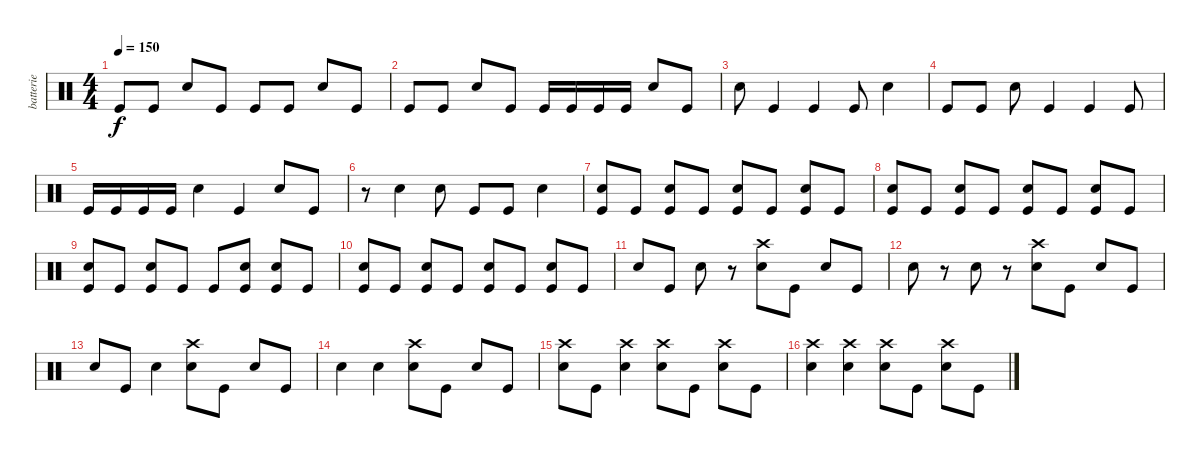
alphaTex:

\track ("batterie" "batterie") {instrument percussion}
\staff {score}
\articulation defaults
\ts (4 4)
\tempo 150
\clef neutral
\ks c "Kick (hit)".8{dy f} "Kick (hit)".8 "Snare (hit) 2".8 "Kick (hit)".8 "Kick (hit)".8 "Kick (hit)".8 "Snare (hit) 2".8 "Kick (hit)".8
|
"Kick (hit)".8 "Kick (hit)".8 "Snare (hit) 2".8 "Kick (hit)".8 "Kick (hit)".16 "Kick (hit)".16 "Kick (hit)".16 "Kick (hit)".16 "Snare (hit) 2".8 "Kick (hit)".8 |
"Snare (hit) 2".8 "Kick (hit)".4 "Kick (hit)".4 "Kick (hit)".8 "Snare (hit) 2".4 |
"Kick (hit)".8 "Kick (hit)".8 "Snare (hit) 2".8 "Kick (hit)".4 "Kick (hit)".4 "Kick (hit)".8 |
"Kick (hit)".16 "Kick (hit)".16 "Kick (hit)".16 "Kick (hit)".16 "Snare (hit) 2".4 "Kick (hit)".4 "Snare (hit) 2".8 "Kick (hit)".8 |
r.8 "Snare (hit) 2".4 "Snare (hit) 2".8 "Kick (hit)".8 "Kick (hit)".8 "Snare (hit) 2".4 |
("Snare (hit) 2" "Kick (hit)").8 "Kick (hit)".8 ("Snare (hit) 2" "Kick (hit)").8 "Kick (hit)".8 ("Snare (hit) 2" "Kick (hit)").8 "Kick (hit)".8 ("Snare (hit) 2" "Kick (hit)").8 "Kick (hit)".8 |
("Snare (hit) 2" "Kick (hit)").8 "Kick (hit)".8 ("Snare (hit) 2" "Kick (hit)").8 "Kick (hit)".8 ("Snare (hit) 2" "Kick (hit)").8 "Kick (hit)".8 ("Snare (hit) 2" "Kick (hit)").8 "Kick (hit)".8 |
("Snare (hit) 2" "Kick (hit)").8 "Kick (hit)".8 ("Snare (hit) 2" "Kick (hit)").8 "Kick (hit)".8 "Kick (hit)".8 ("Snare (hit) 2" "Kick (hit)").8 ("Snare (hit) 2" "Kick (hit)").8 "Kick (hit)".8 |
("Snare (hit) 2" "Kick (hit)").8 "Kick (hit)".8 ("Snare (hit) 2" "Kick (hit)").8 "Kick (hit)".8 ("Snare (hit) 2" "Kick (hit)").8 "Kick (hit)".8 ("Snare (hit) 2" "Kick (hit)").8 "Kick (hit)".8 |
"Snare (hit) 2".8 "Kick (hit)".8 "Snare (hit) 2".8 r.8 ("Crash high (hit)" "Snare (hit) 2").8 "Kick (hit)".8 "Snare (hit) 2".8 "Kick (hit)".8 |
"Snare (hit) 2".8 r.8 "Snare (hit) 2".8 r.8 ("Crash high (hit)" "Snare (hit) 2").8 "Kick (hit)".8 "Snare (hit) 2".8 "Kick (hit)".8 |
"Snare (hit) 2".8 "Kick (hit)".8 "Snare (hit) 2".4 ("Crash high (hit)" "Snare (hit) 2").8 "Kick (hit)".8 "Snare (hit) 2".8 "Kick (hit)".8 |
"Snare (hit) 2".4 "Snare (hit) 2".4 ("Crash high (hit)" "Snare (hit) 2").8 "Kick (hit)".8 "Snare (hit) 2".8 "Kick (hit)".8 |
("Crash high (hit)" "Snare (hit) 2").8 "Kick (hit)".8 ("Crash high (hit)" "Snare (hit) 2").4 ("Crash high (hit)" "Snare (hit) 2").8 "Kick (hit)".8 ("Crash high (hit)" "Snare (hit) 2").8 "Kick (hit)".8 |
("Crash high (hit)" "Snare (hit) 2").4 ("Crash high (hit)" "Snare (hit) 2").4 ("Crash high (hit)" "Snare (hit) 2").8 "Kick (hit)".8 ("Crash high (hit)" "Snare (hit) 2").8 "Kick (hit)".8
